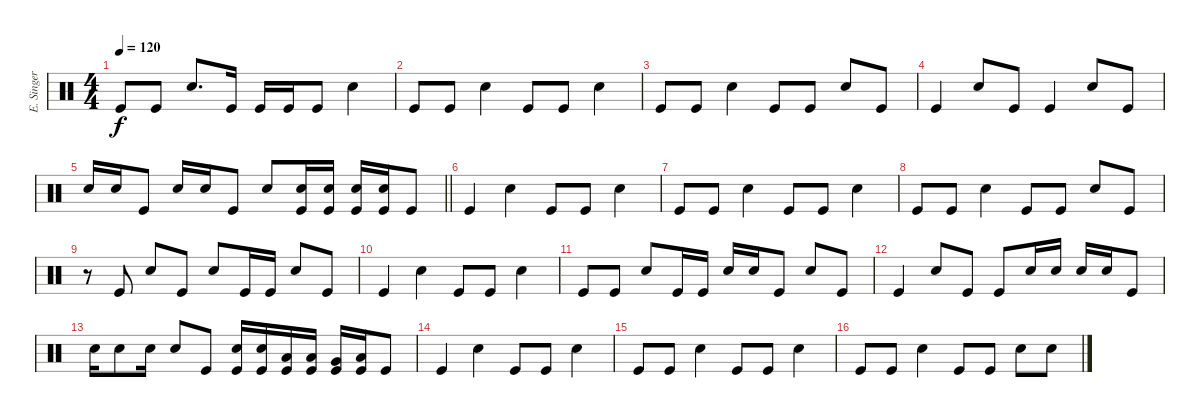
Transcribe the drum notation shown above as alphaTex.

\track ("E. Singer - Drums" "E. Singer ") {instrument percussion}
\staff {score}
\articulation defaults
\ts (4 4)
\tempo 120
\clef neutral
\ks c "Kick (hit)".8{dy f} "Kick (hit)".8 "Snare (hit) 2".8{d} "Kick (hit)".16 "Kick (hit)".16 "Kick (hit)".16 "Kick (hit)".8 "Snare (hit) 2".4
|
"Kick (hit)".8 "Kick (hit)".8 "Snare (hit) 2".4 "Kick (hit)".8 "Kick (hit)".8 "Snare (hit) 2".4 |
"Kick (hit)".8 "Kick (hit)".8 "Snare (hit) 2".4 "Kick (hit)".8 "Kick (hit)".8 "Snare (hit) 2".8 "Kick (hit)".8 |
"Kick (hit)".4 "Snare (hit) 2".8 "Kick (hit)".8 "Kick (hit)".4 "Snare (hit) 2".8 "Kick (hit)".8 |
\barLineRight lightlight "Snare (hit) 2".16 "Snare (hit) 2".16 "Kick (hit)".8 "Snare (hit) 2".16 "Snare (hit) 2".16 "Kick (hit)".8 "Snare (hit) 2".8
("Kick (hit)" "Snare (hit) 2").16 ("Kick (hit)" "Snare (hit) 2").16 ("Kick (hit)" "Snare (hit) 2").16 ("Kick (hit)" "Snare (hit) 2").16 "Kick (hit)".8 |
"Kick (hit)".4 "Snare (hit) 2".4 "Kick (hit)".8 "Kick (hit)".8 "Snare (hit) 2".4 |
"Kick (hit)".8 "Kick (hit)".8 "Snare (hit) 2".4 "Kick (hit)".8 "Kick (hit)".8 "Snare (hit) 2".4 |
"Kick (hit)".8 "Kick (hit)".8 "Snare (hit) 2".4 "Kick (hit)".8 "Kick (hit)".8 "Snare (hit) 2".8 "Kick (hit)".8 |
r.8 "Kick (hit)".8 "Snare (hit) 2".8 "Kick (hit)".8 "Snare (hit) 2".8 "Kick (hit)".16 "Kick (hit)".16 "Snare (hit) 2".8 "Kick (hit)".8 |
"Kick (hit)".4 "Snare (hit) 2".4 "Kick (hit)".8 "Kick (hit)".8 "Snare (hit) 2".4 |
"Kick (hit)".8 "Kick (hit)".8 "Snare (hit) 2".8 "Kick (hit)".16 "Kick (hit)".16 "Snare (hit) 2".16 "Snare (hit) 2".16 "Kick (hit)".8 "Snare (hit) 2".8 "Kick (hit)".8 |
"Kick (hit)".4 "Snare (hit) 2".8 "Kick (hit)".8 "Kick (hit)".8 "Snare (hit) 2".16 "Snare (hit) 2".16 "Snare (hit) 2".16 "Snare (hit) 2".16 "Kick (hit)".8 |
"Snare (hit) 2".16 "Snare (hit) 2".8 "Snare (hit) 2".16 "Snare (hit) 2".8 "Kick (hit)".8 ("Kick (hit)" "Snare (hit) 2").16 ("Kick (hit)" "Snare (hit) 2").16 ("Kick (hit)" "Low Tom (hit)").16 ("Kick (hit)" "Low Tom (hit)").16 ("Kick (hit)" "Very Low Tom (hit)").16 ("Kick (hit)" "Low Floor Tom (hit)").16 "Kick (hit)".8 |
"Kick (hit)".4 "Snare (hit) 2".4 "Kick (hit)".8 "Kick (hit)".8 "Snare (hit) 2".4 |
"Kick (hit)".8 "Kick (hit)".8 "Snare (hit) 2".4 "Kick (hit)".8 "Kick (hit)".8 "Snare (hit) 2".4 |
"Kick (hit)".8 "Kick (hit)".8 "Snare (hit) 2".4 "Kick (hit)".8 "Kick (hit)".8 "Snare (hit) 2".8 "Snare (hit) 2".8
